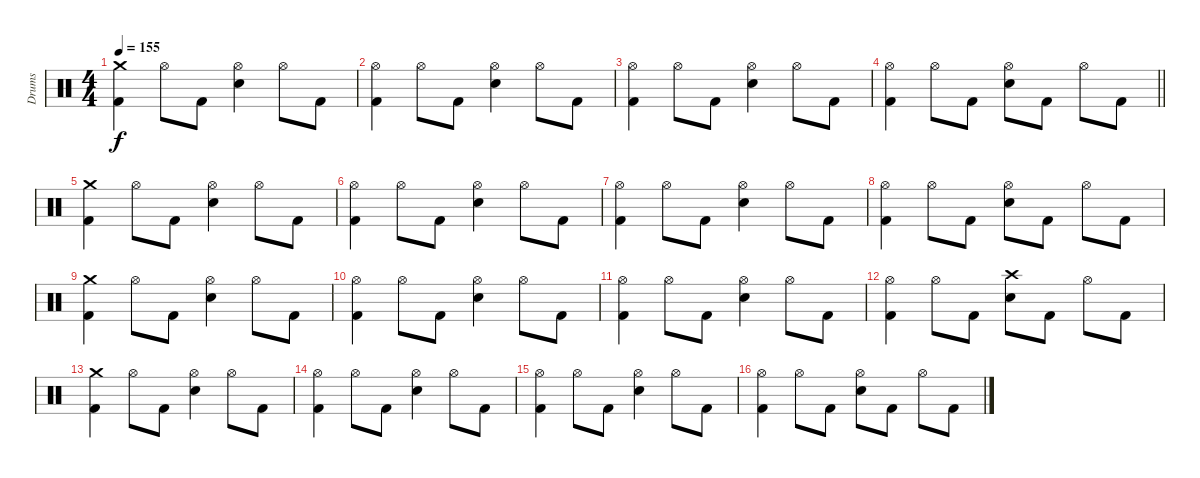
\track ("Drums" "Drums") {instrument percussion}
\staff {score}
\articulation defaults
\ts (4 4)
\tempo 155
\clef neutral
\ks c
("Crash medium (hit)" "Kick (hit) 2").4{dy f} "Hi-Hat (open)".8 "Kick (hit) 2".8 ("Hi-Hat (open)" "Electric Snare (hit)").4 "Hi-Hat (open)".8 "Kick (hit) 2".8 |
("Hi-Hat (open)" "Kick (hit) 2").4 "Hi-Hat (open)".8 "Kick (hit) 2".8 ("Hi-Hat (open)" "Electric Snare (hit)").4 "Hi-Hat (open)".8 "Kick (hit) 2".8 |
("Hi-Hat (open)" "Kick (hit) 2").4 "Hi-Hat (open)".8 "Kick (hit) 2".8 ("Hi-Hat (open)" "Electric Snare (hit)").4 "Hi-Hat (open)".8 "Kick (hit) 2".8 |
\barLineRight lightlight
("Hi-Hat (open)" "Kick (hit) 2").4 "Hi-Hat (open)".8 "Kick (hit) 2".8 ("Hi-Hat (open)" "Electric Snare (hit)").8 "Kick (hit) 2".8 "Hi-Hat (open)".8 "Kick (hit) 2".8 |
\section ("" "")
("Crash medium (hit)" "Kick (hit) 2").4 "Hi-Hat (open)".8 "Kick (hit) 2".8 ("Hi-Hat (open)" "Electric Snare (hit)").4 "Hi-Hat (open)".8 "Kick (hit) 2".8 |
("Hi-Hat (open)" "Kick (hit) 2").4 "Hi-Hat (open)".8 "Kick (hit) 2".8 ("Hi-Hat (open)" "Electric Snare (hit)").4 "Hi-Hat (open)".8 "Kick (hit) 2".8 |
("Hi-Hat (open)" "Kick (hit) 2").4 "Hi-Hat (open)".8 "Kick (hit) 2".8 ("Hi-Hat (open)" "Electric Snare (hit)").4 "Hi-Hat (open)".8 "Kick (hit) 2".8 |
("Hi-Hat (open)" "Kick (hit) 2").4 "Hi-Hat (open)".8 "Kick (hit) 2".8 ("Hi-Hat (open)" "Electric Snare (hit)").8 "Kick (hit) 2".8 "Hi-Hat (open)".8 "Kick (hit) 2".8 |
("Crash medium (hit)" "Kick (hit) 2").4 "Hi-Hat (open)".8 "Kick (hit) 2".8 ("Hi-Hat (open)" "Electric Snare (hit)").4 "Hi-Hat (open)".8 "Kick (hit) 2".8 |
("Hi-Hat (open)" "Kick (hit) 2").4 "Hi-Hat (open)".8 "Kick (hit) 2".8 ("Hi-Hat (open)" "Electric Snare (hit)").4 "Hi-Hat (open)".8 "Kick (hit) 2".8 |
("Hi-Hat (open)" "Kick (hit) 2").4 "Hi-Hat (open)".8 "Kick (hit) 2".8 ("Hi-Hat (open)" "Electric Snare (hit)").4 "Hi-Hat (open)".8 "Kick (hit) 2".8 |
("Hi-Hat (open)" "Kick (hit) 2").4 "Hi-Hat (open)".8 "Kick (hit) 2".8 ("Crash high (hit)" "Electric Snare (hit)").8 "Kick (hit) 2".8 "Hi-Hat (open)".8 "Kick (hit) 2".8 |
("Crash medium (hit)" "Kick (hit) 2").4 "Hi-Hat (open)".8 "Kick (hit) 2".8 ("Hi-Hat (open)" "Electric Snare (hit)").4 "Hi-Hat (open)".8 "Kick (hit) 2".8 |
("Hi-Hat (open)" "Kick (hit) 2").4 "Hi-Hat (open)".8 "Kick (hit) 2".8 ("Hi-Hat (open)" "Electric Snare (hit)").4 "Hi-Hat (open)".8 "Kick (hit) 2".8 |
("Hi-Hat (open)" "Kick (hit) 2").4 "Hi-Hat (open)".8 "Kick (hit) 2".8 ("Hi-Hat (open)" "Electric Snare (hit)").4 "Hi-Hat (open)".8 "Kick (hit) 2".8 |
("Hi-Hat (open)" "Kick (hit) 2").4 "Hi-Hat (open)".8 "Kick (hit) 2".8 ("Hi-Hat (open)" "Electric Snare (hit)").8 "Kick (hit) 2".8 "Hi-Hat (open)".8 "Kick (hit) 2".8
